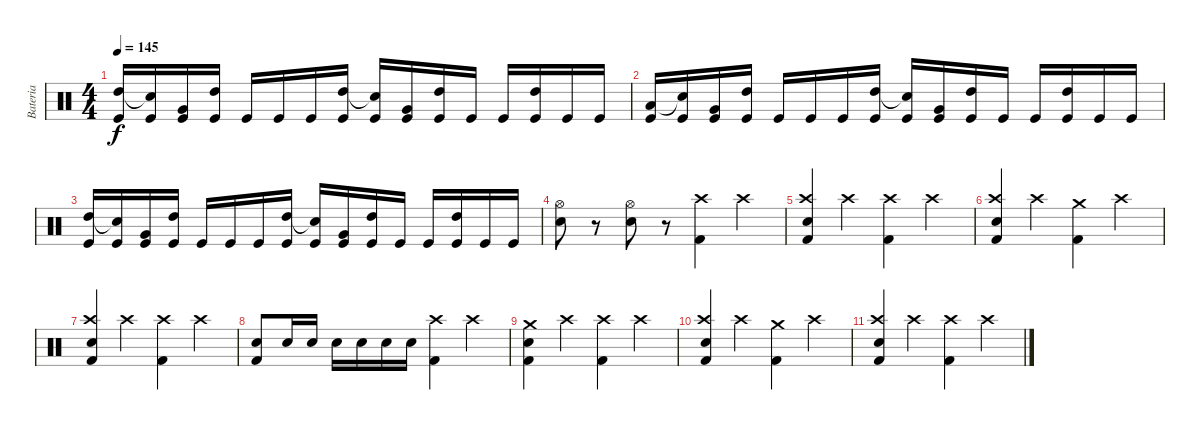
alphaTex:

\track ("Bateria" "Bateria") {instrument percussion}
\staff {score}
\articulation defaults
\ts (4 4)
\tempo 145
\clef neutral
\ks c
("High Tom (hit)" "Kick (hit)").16{dy f} ("Snare (hit)"{t} "Kick (hit)").16 ("Very Low Tom (hit)" "Kick (hit)").16 ("High Tom (hit)" "Kick (hit)").16 "Kick (hit)".16 "Kick (hit)".16 "Kick (hit)".16 ("High Tom (hit)" "Kick (hit)").16 ("Snare (hit)"{t} "Kick (hit)").16 ("Very Low Tom (hit)" "Kick (hit)").16 ("High Tom (hit)" "Kick (hit)").16 "Kick (hit)".16 "Kick (hit)".16 ("High Tom (hit)" "Kick (hit)").16 "Kick (hit)".16 "Kick (hit)".16 |
("Low Floor Tom (hit)" "Kick (hit)").16 ("Snare (hit)"{t} "Kick (hit)").16 ("Very Low Tom (hit)" "Kick (hit)").16 ("High Tom (hit)" "Kick (hit)").16 "Kick (hit)".16 "Kick (hit)".16 "Kick (hit)".16 ("High Tom (hit)" "Kick (hit)").16 ("Snare (hit)"{t} "Kick (hit)").16 ("Very Low Tom (hit)" "Kick (hit)").16 ("High Tom (hit)" "Kick (hit)").16 "Kick (hit)".16 "Kick (hit)".16 ("High Tom (hit)" "Kick (hit)").16 "Kick (hit)".16 "Kick (hit)".16 |
("High Tom (hit)" "Kick (hit)").16 ("Snare (hit)"{t} "Kick (hit)").16 ("Very Low Tom (hit)" "Kick (hit)").16 ("High Tom (hit)" "Kick (hit)").16 "Kick (hit)".16 "Kick (hit)".16 "Kick (hit)".16 ("High Tom (hit)" "Kick (hit)").16 ("Snare (hit)"{t} "Kick (hit)").16 ("Very Low Tom (hit)" "Kick (hit)").16 ("High Tom (hit)" "Kick (hit)").16 "Kick (hit)".16 "Kick (hit)".16 ("High Tom (hit)" "Kick (hit)").16 "Kick (hit)".16 "Kick (hit)".16 |
("Hi-Hat (open)" "Electric Snare (hit)").8 r.8 ("Hi-Hat (open)" "Electric Snare (hit)").8 r.8 ("Crash high (hit)" "Kick (hit) 2").4 "Crash high (hit)".4 |
("Crash high (hit)" "Electric Snare (hit)" "Kick (hit) 2").4 "Crash high (hit)".4 ("Crash high (hit)" "Kick (hit) 2").4 "Crash high (hit)".4 |
("Crash high (hit)" "Electric Snare (hit)" "Kick (hit) 2").4 "Crash high (hit)".4 ("Crash medium (hit)" "Kick (hit) 2").4 "Crash high (hit)".4 |
("Crash high (hit)" "Electric Snare (hit)" "Kick (hit) 2").4 "Crash high (hit)".4 ("Crash high (hit)" "Kick (hit) 2").4 "Crash high (hit)".4 |
("Electric Snare (hit)" "Kick (hit) 2").8 "Electric Snare (hit)".16 "Electric Snare (hit)".16 "Electric Snare (hit)".16 "Electric Snare (hit)".16 "Electric Snare (hit)".16 "Electric Snare (hit)".16 ("Crash high (hit)" "Kick (hit) 2").4 "Crash high (hit)".4 |
("Crash medium (hit)" "Electric Snare (hit)" "Kick (hit) 2").4 "Crash high (hit)".4 ("Crash high (hit)" "Kick (hit) 2").4 "Crash high (hit)".4 |
("Crash high (hit)" "Electric Snare (hit)" "Kick (hit) 2").4 "Crash high (hit)".4 ("Crash medium (hit)" "Kick (hit) 2").4 "Crash high (hit)".4 |
("Crash high (hit)" "Electric Snare (hit)" "Kick (hit) 2").4 "Crash high (hit)".4 ("Crash high (hit)" "Kick (hit) 2").4 "Crash high (hit)".4
